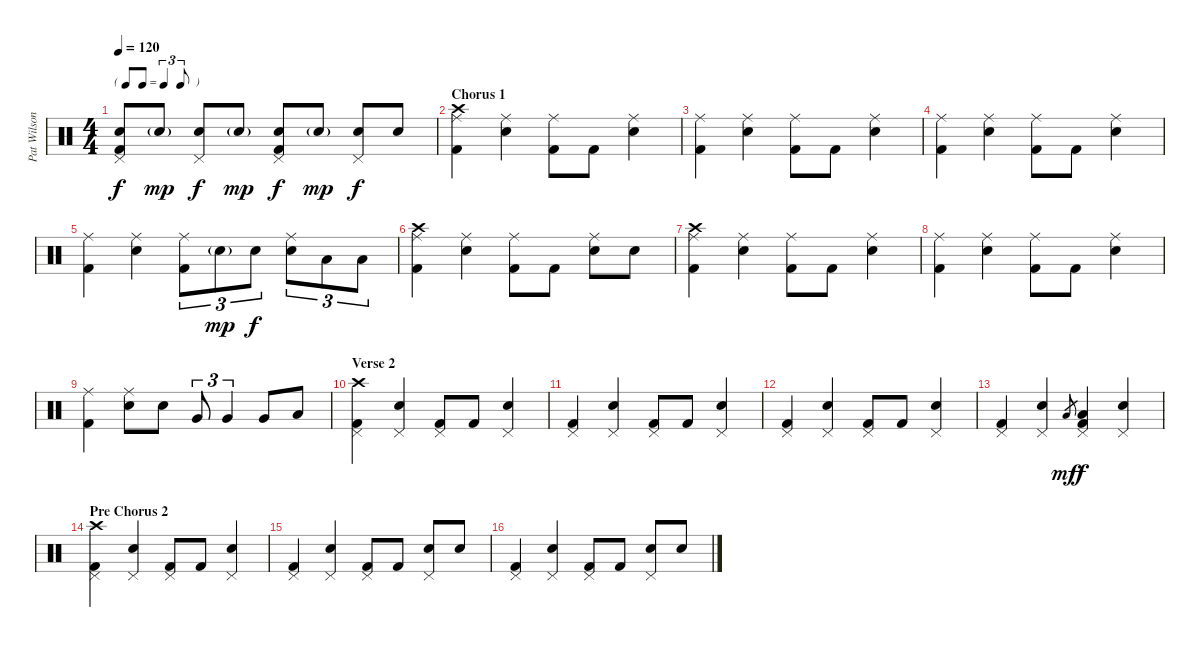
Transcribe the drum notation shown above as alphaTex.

\track ("Pat Wilson - Drums" "Pat Wilson") {instrument percussion}
\staff {score}
\articulation defaults
\ts (4 4)
\tf triplet8th
\tempo 120
\clef neutral
\ks c
("Pedal Hi-Hat (hit)" "Kick (hit) 2" "Electric Snare (hit)").8{dy f} "Electric Snare (hit)"{g}.8{dy mp} ("Pedal Hi-Hat (hit)" "Electric Snare (hit)").8{dy f} "Electric Snare (hit)"{g}.8{dy mp} ("Pedal Hi-Hat (hit)" "Kick (hit) 2" "Electric Snare (hit)").8{dy f} "Electric Snare (hit)"{g}.8{dy mp} ("Pedal Hi-Hat (hit)" "Electric Snare (hit)").8{dy f} "Electric Snare (hit)".8 |
\section ("" "Chorus 1")
("Ride (middle)" "Kick (hit) 2" "Crash high (hit)").4 ("Ride (middle)" "Electric Snare (hit)").4 ("Ride (middle)" "Kick (hit) 2").8 "Kick (hit) 2".8 ("Ride (middle)" "Electric Snare (hit)").4 |
("Ride (middle)" "Kick (hit) 2").4 ("Ride (middle)" "Electric Snare (hit)").4 ("Ride (middle)" "Kick (hit) 2").8 "Kick (hit) 2".8 ("Ride (middle)" "Electric Snare (hit)").4 |
("Ride (middle)" "Kick (hit) 2").4 ("Ride (middle)" "Electric Snare (hit)").4 ("Ride (middle)" "Kick (hit) 2").8 "Kick (hit) 2".8 ("Ride (middle)" "Electric Snare (hit)").4 |
("Ride (middle)" "Kick (hit) 2").4 ("Ride (middle)" "Electric Snare (hit)").4 ("Ride (middle)" "Kick (hit) 2").8{tu (3 2)} "Electric Snare (hit)"{g}.8{tu (3 2) dy mp} "Electric Snare (hit)".8{tu (3 2) dy f} ("Ride (middle)" "Electric Snare (hit)").8{tu (3 2)} "Low Tom (hit)".8{tu (3 2)} "Low Tom (hit)".8{tu (3 2)} |
("Ride (middle)" "Kick (hit) 2" "Crash high (hit)").4 ("Ride (middle)" "Electric Snare (hit)").4 ("Ride (middle)" "Kick (hit) 2").8 "Kick (hit) 2".8 ("Ride (middle)" "Electric Snare (hit)").8 "Electric Snare (hit)".8 |
("Ride (middle)" "Kick (hit) 2" "Crash high (hit)").4 ("Ride (middle)" "Electric Snare (hit)").4 ("Ride (middle)" "Kick (hit) 2").8 "Kick (hit) 2".8 ("Ride (middle)" "Electric Snare (hit)").4 |
("Ride (middle)" "Kick (hit) 2").4 ("Ride (middle)" "Electric Snare (hit)").4 ("Ride (middle)" "Kick (hit) 2").8 "Kick (hit) 2".8 ("Ride (middle)" "Electric Snare (hit)").4 |
("Ride (middle)" "Kick (hit) 2").4 ("Ride (middle)" "Electric Snare (hit)").8 "Electric Snare (hit)".8 "Very Low Tom (hit)".8{tu (3 2)} "Very Low Tom (hit)".4{tu (3 2)} "Very Low Tom (hit)".8 "Low Tom (hit)".8 |
\section ("" "Verse 2")
("Pedal Hi-Hat (hit)" "Kick (hit) 2" "Crash high (hit)").4 ("Pedal Hi-Hat (hit)" "Electric Snare (hit)").4 ("Pedal Hi-Hat (hit)" "Kick (hit) 2").8 "Kick (hit) 2".8 ("Pedal Hi-Hat (hit)" "Electric Snare (hit)").4 |
("Pedal Hi-Hat (hit)" "Kick (hit) 2").4 ("Pedal Hi-Hat (hit)" "Electric Snare (hit)").4 ("Pedal Hi-Hat (hit)" "Kick (hit) 2").8 "Kick (hit) 2".8 ("Pedal Hi-Hat (hit)" "Electric Snare (hit)").4 |
("Pedal Hi-Hat (hit)" "Kick (hit) 2").4 ("Pedal Hi-Hat (hit)" "Electric Snare (hit)").4 ("Pedal Hi-Hat (hit)" "Kick (hit) 2").8 "Kick (hit) 2".8 ("Pedal Hi-Hat (hit)" "Electric Snare (hit)").4 |
("Pedal Hi-Hat (hit)" "Kick (hit) 2").4 ("Pedal Hi-Hat (hit)" "Electric Snare (hit)").4 "Low Tom (hit)".8{gr dy mf} ("Pedal Hi-Hat (hit)" "Kick (hit) 2" "Low Tom (hit)").4{dy f} ("Pedal Hi-Hat (hit)" "Electric Snare (hit)").4 |
\section ("" "Pre Chorus 2")
("Pedal Hi-Hat (hit)" "Kick (hit) 2" "Crash high (hit)").4 ("Pedal Hi-Hat (hit)" "Electric Snare (hit)").4 ("Pedal Hi-Hat (hit)" "Kick (hit) 2").8 "Kick (hit) 2".8 ("Pedal Hi-Hat (hit)" "Electric Snare (hit)").4 |
("Pedal Hi-Hat (hit)" "Kick (hit) 2").4 ("Pedal Hi-Hat (hit)" "Electric Snare (hit)").4 ("Pedal Hi-Hat (hit)" "Kick (hit) 2").8 "Kick (hit) 2".8 ("Pedal Hi-Hat (hit)" "Electric Snare (hit)").8 "Electric Snare (hit)".8 |
("Pedal Hi-Hat (hit)" "Kick (hit) 2").4 ("Pedal Hi-Hat (hit)" "Electric Snare (hit)").4 ("Pedal Hi-Hat (hit)" "Kick (hit) 2").8 "Kick (hit) 2".8 ("Pedal Hi-Hat (hit)" "Electric Snare (hit)").8 "Electric Snare (hit)".8
